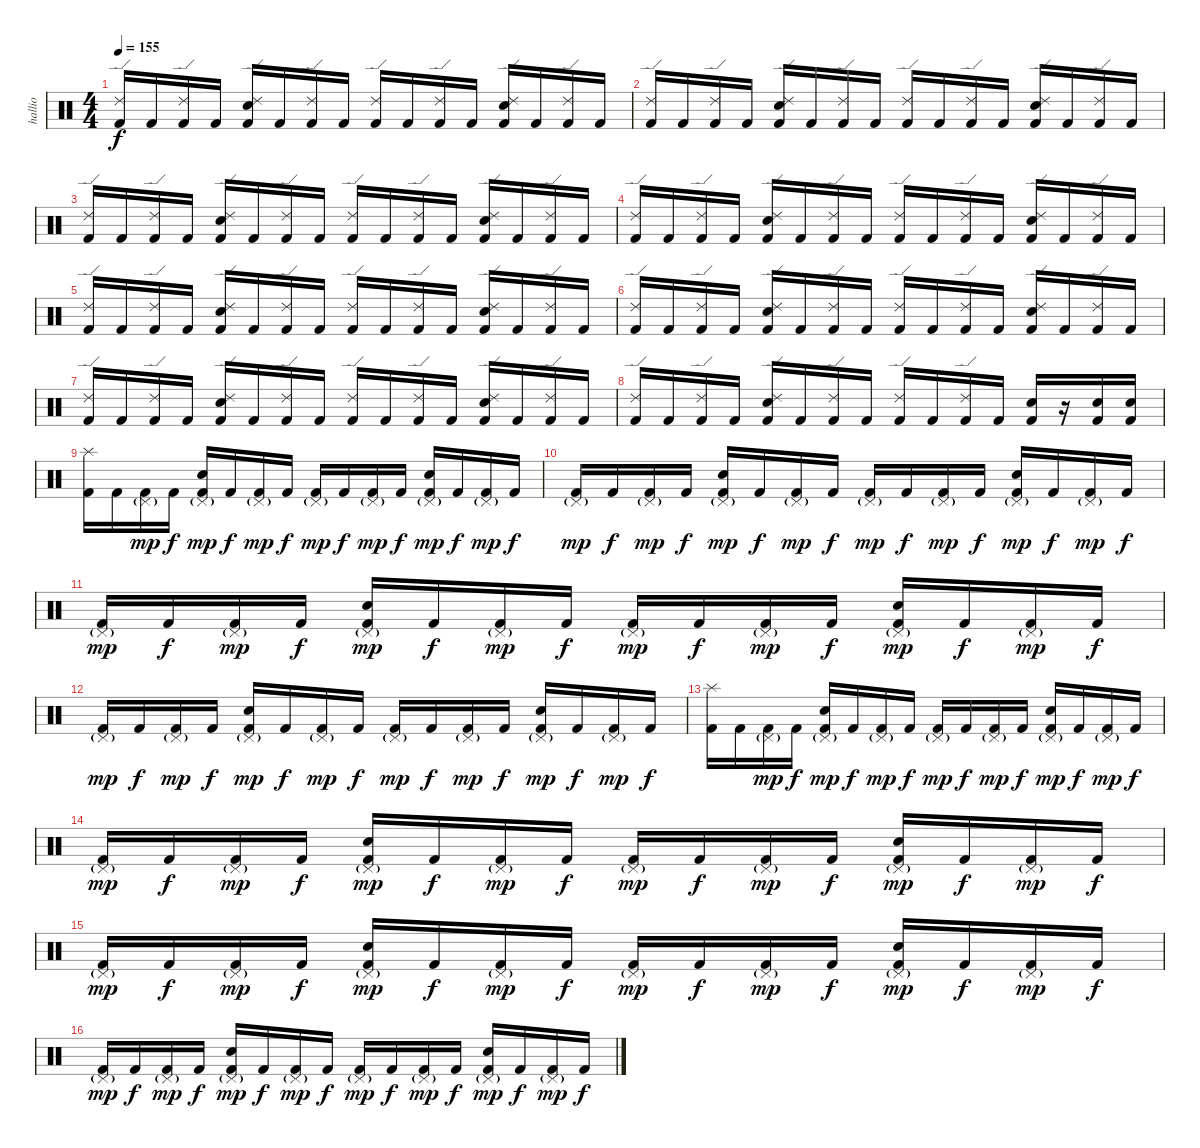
\track ("hallio" "hallio") {instrument percussion}
\staff {score}
\articulation defaults
\ts (4 4)
\tempo 155
\clef neutral
\ks c
("Kick (hit) 2" "Ride (edge) 2").16{dy f} "Kick (hit) 2".16 ("Kick (hit) 2" "Ride (edge) 2").16 "Kick (hit) 2".16 ("Kick (hit) 2" "Snare (hit) 2" "Ride (edge) 2").16 "Kick (hit) 2".16 ("Kick (hit) 2" "Ride (edge) 2").16 "Kick (hit) 2".16 ("Kick (hit) 2" "Ride (edge) 2").16 "Kick (hit) 2".16 ("Kick (hit) 2" "Ride (edge) 2").16 "Kick (hit) 2".16 ("Kick (hit) 2" "Snare (hit) 2" "Ride (edge) 2").16 "Kick (hit) 2".16 ("Kick (hit) 2" "Ride (edge) 2").16 "Kick (hit) 2".16 |
("Kick (hit) 2" "Ride (edge) 2").16 "Kick (hit) 2".16 ("Kick (hit) 2" "Ride (edge) 2").16 "Kick (hit) 2".16 ("Kick (hit) 2" "Snare (hit) 2" "Ride (edge) 2").16 "Kick (hit) 2".16 ("Kick (hit) 2" "Ride (edge) 2").16 "Kick (hit) 2".16 ("Kick (hit) 2" "Ride (edge) 2").16 "Kick (hit) 2".16 ("Kick (hit) 2" "Ride (edge) 2").16 "Kick (hit) 2".16 ("Kick (hit) 2" "Snare (hit) 2" "Ride (edge) 2").16 "Kick (hit) 2".16 ("Kick (hit) 2" "Ride (edge) 2").16 "Kick (hit) 2".16 |
("Kick (hit) 2" "Ride (edge) 2").16 "Kick (hit) 2".16 ("Kick (hit) 2" "Ride (edge) 2").16 "Kick (hit) 2".16 ("Kick (hit) 2" "Snare (hit) 2" "Ride (edge) 2").16 "Kick (hit) 2".16 ("Kick (hit) 2" "Ride (edge) 2").16 "Kick (hit) 2".16 ("Kick (hit) 2" "Ride (edge) 2").16 "Kick (hit) 2".16 ("Kick (hit) 2" "Ride (edge) 2").16 "Kick (hit) 2".16 ("Kick (hit) 2" "Snare (hit) 2" "Ride (edge) 2").16 "Kick (hit) 2".16 ("Kick (hit) 2" "Ride (edge) 2").16 "Kick (hit) 2".16 |
("Kick (hit) 2" "Ride (edge) 2").16 "Kick (hit) 2".16 ("Kick (hit) 2" "Ride (edge) 2").16 "Kick (hit) 2".16 ("Kick (hit) 2" "Snare (hit) 2" "Ride (edge) 2").16 "Kick (hit) 2".16 ("Kick (hit) 2" "Ride (edge) 2").16 "Kick (hit) 2".16 ("Kick (hit) 2" "Ride (edge) 2").16 "Kick (hit) 2".16 ("Kick (hit) 2" "Ride (edge) 2").16 "Kick (hit) 2".16 ("Kick (hit) 2" "Snare (hit) 2" "Ride (edge) 2").16 "Kick (hit) 2".16 ("Kick (hit) 2" "Ride (edge) 2").16 "Kick (hit) 2".16 |
("Kick (hit) 2" "Ride (edge) 2").16 "Kick (hit) 2".16 ("Kick (hit) 2" "Ride (edge) 2").16 "Kick (hit) 2".16 ("Kick (hit) 2" "Snare (hit) 2" "Ride (edge) 2").16 "Kick (hit) 2".16 ("Kick (hit) 2" "Ride (edge) 2").16 "Kick (hit) 2".16 ("Kick (hit) 2" "Ride (edge) 2").16 "Kick (hit) 2".16 ("Kick (hit) 2" "Ride (edge) 2").16 "Kick (hit) 2".16 ("Kick (hit) 2" "Snare (hit) 2" "Ride (edge) 2").16 "Kick (hit) 2".16 ("Kick (hit) 2" "Ride (edge) 2").16 "Kick (hit) 2".16 |
("Kick (hit) 2" "Ride (edge) 2").16 "Kick (hit) 2".16 ("Kick (hit) 2" "Ride (edge) 2").16 "Kick (hit) 2".16 ("Kick (hit) 2" "Snare (hit) 2" "Ride (edge) 2").16 "Kick (hit) 2".16 ("Kick (hit) 2" "Ride (edge) 2").16 "Kick (hit) 2".16 ("Kick (hit) 2" "Ride (edge) 2").16 "Kick (hit) 2".16 ("Kick (hit) 2" "Ride (edge) 2").16 "Kick (hit) 2".16 ("Kick (hit) 2" "Snare (hit) 2" "Ride (edge) 2").16 "Kick (hit) 2".16 ("Kick (hit) 2" "Ride (edge) 2").16 "Kick (hit) 2".16 |
("Kick (hit) 2" "Ride (edge) 2").16 "Kick (hit) 2".16 ("Kick (hit) 2" "Ride (edge) 2").16 "Kick (hit) 2".16 ("Kick (hit) 2" "Snare (hit) 2" "Ride (edge) 2").16 "Kick (hit) 2".16 ("Kick (hit) 2" "Ride (edge) 2").16 "Kick (hit) 2".16 ("Kick (hit) 2" "Ride (edge) 2").16 "Kick (hit) 2".16 ("Kick (hit) 2" "Ride (edge) 2").16 "Kick (hit) 2".16 ("Kick (hit) 2" "Snare (hit) 2" "Ride (edge) 2").16 "Kick (hit) 2".16 ("Kick (hit) 2" "Ride (edge) 2").16 "Kick (hit) 2".16 |
("Kick (hit) 2" "Ride (edge) 2").16 "Kick (hit) 2".16 ("Kick (hit) 2" "Ride (edge) 2").16 "Kick (hit) 2".16 ("Kick (hit) 2" "Snare (hit) 2" "Ride (edge) 2").16 "Kick (hit) 2".16 ("Kick (hit) 2" "Ride (edge) 2").16 "Kick (hit) 2".16 ("Kick (hit) 2" "Ride (edge) 2").16 "Kick (hit) 2".16 ("Kick (hit) 2" "Ride (edge) 2").16 "Kick (hit) 2".16 ("Kick (hit) 2" "Snare (hit) 2").16 r.16 ("Kick (hit) 2" "Snare (hit) 2").16 ("Kick (hit) 2" "Snare (hit) 2").16 |
("Kick (hit) 2" "Splash (hit)").16 "Kick (hit) 2".16 ("Kick (hit) 2" "Pedal Hi-Hat (hit)"{g}).16{dy mp} "Kick (hit) 2".16{dy f} ("Kick (hit) 2" "Snare (hit) 2" "Pedal Hi-Hat (hit)"{g}).16{dy mp} "Kick (hit) 2".16{dy f} ("Kick (hit) 2" "Pedal Hi-Hat (hit)"{g}).16{dy mp} "Kick (hit) 2".16{dy f} ("Kick (hit) 2" "Pedal Hi-Hat (hit)"{g}).16{dy mp} "Kick (hit) 2".16{dy f} ("Kick (hit) 2" "Pedal Hi-Hat (hit)"{g}).16{dy mp} "Kick (hit) 2".16{dy f} ("Kick (hit) 2" "Snare (hit) 2" "Pedal Hi-Hat (hit)"{g}).16{dy mp} "Kick (hit) 2".16{dy f} ("Kick (hit) 2" "Pedal Hi-Hat (hit)"{g}).16{dy mp} "Kick (hit) 2".16{dy f} |
("Kick (hit) 2" "Pedal Hi-Hat (hit)"{g}).16{dy mp} "Kick (hit) 2".16{dy f} ("Kick (hit) 2" "Pedal Hi-Hat (hit)"{g}).16{dy mp} "Kick (hit) 2".16{dy f} ("Kick (hit) 2" "Snare (hit) 2" "Pedal Hi-Hat (hit)"{g}).16{dy mp} "Kick (hit) 2".16{dy f} ("Kick (hit) 2" "Pedal Hi-Hat (hit)"{g}).16{dy mp} "Kick (hit) 2".16{dy f} ("Kick (hit) 2" "Pedal Hi-Hat (hit)"{g}).16{dy mp} "Kick (hit) 2".16{dy f} ("Kick (hit) 2" "Pedal Hi-Hat (hit)"{g}).16{dy mp} "Kick (hit) 2".16{dy f} ("Kick (hit) 2" "Snare (hit) 2" "Pedal Hi-Hat (hit)"{g}).16{dy mp} "Kick (hit) 2".16{dy f} ("Kick (hit) 2" "Pedal Hi-Hat (hit)"{g}).16{dy mp} "Kick (hit) 2".16{dy f} |
("Kick (hit) 2" "Pedal Hi-Hat (hit)"{g}).16{dy mp} "Kick (hit) 2".16{dy f} ("Kick (hit) 2" "Pedal Hi-Hat (hit)"{g}).16{dy mp} "Kick (hit) 2".16{dy f} ("Kick (hit) 2" "Snare (hit) 2" "Pedal Hi-Hat (hit)"{g}).16{dy mp} "Kick (hit) 2".16{dy f} ("Kick (hit) 2" "Pedal Hi-Hat (hit)"{g}).16{dy mp} "Kick (hit) 2".16{dy f} ("Kick (hit) 2" "Pedal Hi-Hat (hit)"{g}).16{dy mp} "Kick (hit) 2".16{dy f} ("Kick (hit) 2" "Pedal Hi-Hat (hit)"{g}).16{dy mp} "Kick (hit) 2".16{dy f} ("Kick (hit) 2" "Snare (hit) 2" "Pedal Hi-Hat (hit)"{g}).16{dy mp} "Kick (hit) 2".16{dy f} ("Kick (hit) 2" "Pedal Hi-Hat (hit)"{g}).16{dy mp} "Kick (hit) 2".16{dy f} |
("Kick (hit) 2" "Pedal Hi-Hat (hit)"{g}).16{dy mp} "Kick (hit) 2".16{dy f} ("Kick (hit) 2" "Pedal Hi-Hat (hit)"{g}).16{dy mp} "Kick (hit) 2".16{dy f} ("Kick (hit) 2" "Snare (hit) 2" "Pedal Hi-Hat (hit)"{g}).16{dy mp} "Kick (hit) 2".16{dy f} ("Kick (hit) 2" "Pedal Hi-Hat (hit)"{g}).16{dy mp} "Kick (hit) 2".16{dy f} ("Kick (hit) 2" "Pedal Hi-Hat (hit)"{g}).16{dy mp} "Kick (hit) 2".16{dy f} ("Kick (hit) 2" "Pedal Hi-Hat (hit)"{g}).16{dy mp} "Kick (hit) 2".16{dy f} ("Kick (hit) 2" "Snare (hit) 2" "Pedal Hi-Hat (hit)"{g}).16{dy mp} "Kick (hit) 2".16{dy f} ("Kick (hit) 2" "Pedal Hi-Hat (hit)"{g}).16{dy mp} "Kick (hit) 2".16{dy f} |
("Kick (hit) 2" "Splash (hit)").16 "Kick (hit) 2".16 ("Kick (hit) 2" "Pedal Hi-Hat (hit)"{g}).16{dy mp} "Kick (hit) 2".16{dy f} ("Kick (hit) 2" "Snare (hit) 2" "Pedal Hi-Hat (hit)"{g}).16{dy mp} "Kick (hit) 2".16{dy f} ("Kick (hit) 2" "Pedal Hi-Hat (hit)"{g}).16{dy mp} "Kick (hit) 2".16{dy f} ("Kick (hit) 2" "Pedal Hi-Hat (hit)"{g}).16{dy mp} "Kick (hit) 2".16{dy f} ("Kick (hit) 2" "Pedal Hi-Hat (hit)"{g}).16{dy mp} "Kick (hit) 2".16{dy f} ("Kick (hit) 2" "Snare (hit) 2" "Pedal Hi-Hat (hit)"{g}).16{dy mp} "Kick (hit) 2".16{dy f} ("Kick (hit) 2" "Pedal Hi-Hat (hit)"{g}).16{dy mp} "Kick (hit) 2".16{dy f} |
("Kick (hit) 2" "Pedal Hi-Hat (hit)"{g}).16{dy mp} "Kick (hit) 2".16{dy f} ("Kick (hit) 2" "Pedal Hi-Hat (hit)"{g}).16{dy mp} "Kick (hit) 2".16{dy f} ("Kick (hit) 2" "Snare (hit) 2" "Pedal Hi-Hat (hit)"{g}).16{dy mp} "Kick (hit) 2".16{dy f} ("Kick (hit) 2" "Pedal Hi-Hat (hit)"{g}).16{dy mp} "Kick (hit) 2".16{dy f} ("Kick (hit) 2" "Pedal Hi-Hat (hit)"{g}).16{dy mp} "Kick (hit) 2".16{dy f} ("Kick (hit) 2" "Pedal Hi-Hat (hit)"{g}).16{dy mp} "Kick (hit) 2".16{dy f} ("Kick (hit) 2" "Snare (hit) 2" "Pedal Hi-Hat (hit)"{g}).16{dy mp} "Kick (hit) 2".16{dy f} ("Kick (hit) 2" "Pedal Hi-Hat (hit)"{g}).16{dy mp} "Kick (hit) 2".16{dy f} |
("Kick (hit) 2" "Pedal Hi-Hat (hit)"{g}).16{dy mp} "Kick (hit) 2".16{dy f} ("Kick (hit) 2" "Pedal Hi-Hat (hit)"{g}).16{dy mp} "Kick (hit) 2".16{dy f} ("Kick (hit) 2" "Snare (hit) 2" "Pedal Hi-Hat (hit)"{g}).16{dy mp} "Kick (hit) 2".16{dy f} ("Kick (hit) 2" "Pedal Hi-Hat (hit)"{g}).16{dy mp} "Kick (hit) 2".16{dy f} ("Kick (hit) 2" "Pedal Hi-Hat (hit)"{g}).16{dy mp} "Kick (hit) 2".16{dy f} ("Kick (hit) 2" "Pedal Hi-Hat (hit)"{g}).16{dy mp} "Kick (hit) 2".16{dy f} ("Kick (hit) 2" "Snare (hit) 2" "Pedal Hi-Hat (hit)"{g}).16{dy mp} "Kick (hit) 2".16{dy f} ("Kick (hit) 2" "Pedal Hi-Hat (hit)"{g}).16{dy mp} "Kick (hit) 2".16{dy f} |
("Kick (hit) 2" "Pedal Hi-Hat (hit)"{g}).16{dy mp} "Kick (hit) 2".16{dy f} ("Kick (hit) 2" "Pedal Hi-Hat (hit)"{g}).16{dy mp} "Kick (hit) 2".16{dy f} ("Kick (hit) 2" "Snare (hit) 2" "Pedal Hi-Hat (hit)"{g}).16{dy mp} "Kick (hit) 2".16{dy f} ("Kick (hit) 2" "Pedal Hi-Hat (hit)"{g}).16{dy mp} "Kick (hit) 2".16{dy f} ("Kick (hit) 2" "Pedal Hi-Hat (hit)"{g}).16{dy mp} "Kick (hit) 2".16{dy f} ("Kick (hit) 2" "Pedal Hi-Hat (hit)"{g}).16{dy mp} "Kick (hit) 2".16{dy f} ("Kick (hit) 2" "Snare (hit) 2" "Pedal Hi-Hat (hit)"{g}).16{dy mp} "Kick (hit) 2".16{dy f} ("Kick (hit) 2" "Pedal Hi-Hat (hit)"{g}).16{dy mp} "Kick (hit) 2".16{dy f}
